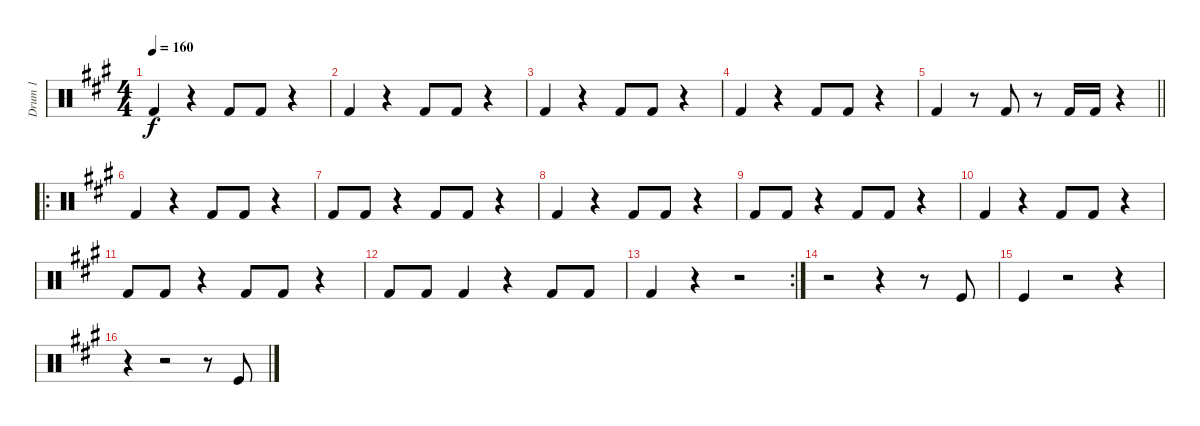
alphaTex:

\track ("Drum 1" "Drum 1") {instrument percussion}
\staff {score}
\articulation defaults
\ts (4 4)
\tempo 160
\clef neutral
\ks a "Kick (hit) 2".4{dy f}
r.4 "Kick (hit) 2".8 "Kick (hit) 2".8 r.4 |
"Kick (hit) 2".4 r.4 "Kick (hit) 2".8 "Kick (hit) 2".8 r.4 |
"Kick (hit) 2".4 r.4 "Kick (hit) 2".8 "Kick (hit) 2".8 r.4 |
"Kick (hit) 2".4 r.4 "Kick (hit) 2".8 "Kick (hit) 2".8 r.4 |
\barLineRight lightlight "Kick (hit) 2".4
r.8 "Kick (hit) 2".8 r.8 "Kick (hit) 2".16 "Kick (hit) 2".16 r.4 |
\ro "Kick (hit) 2".4
r.4 "Kick (hit) 2".8 "Kick (hit) 2".8 r.4 |
"Kick (hit) 2".8 "Kick (hit) 2".8 r.4 "Kick (hit) 2".8 "Kick (hit) 2".8 r.4 |
"Kick (hit) 2".4 r.4 "Kick (hit) 2".8 "Kick (hit) 2".8 r.4 |
"Kick (hit) 2".8 "Kick (hit) 2".8 r.4 "Kick (hit) 2".8 "Kick (hit) 2".8 r.4 |
"Kick (hit) 2".4 r.4 "Kick (hit) 2".8 "Kick (hit) 2".8 r.4 |
"Kick (hit) 2".8 "Kick (hit) 2".8 r.4 "Kick (hit) 2".8 "Kick (hit) 2".8 r.4 |
"Kick (hit) 2".8 "Kick (hit) 2".8 "Kick (hit) 2".4 r.4 "Kick (hit) 2".8 "Kick (hit) 2".8 |
\rc 2 "Kick (hit) 2".4
r.4 r.2 |
r.2 r.4 r.8 "Kick (hit)".8 |
"Kick (hit)".4 r.2 r.4 |
r.4 r.2 r.8 "Kick (hit)".8
